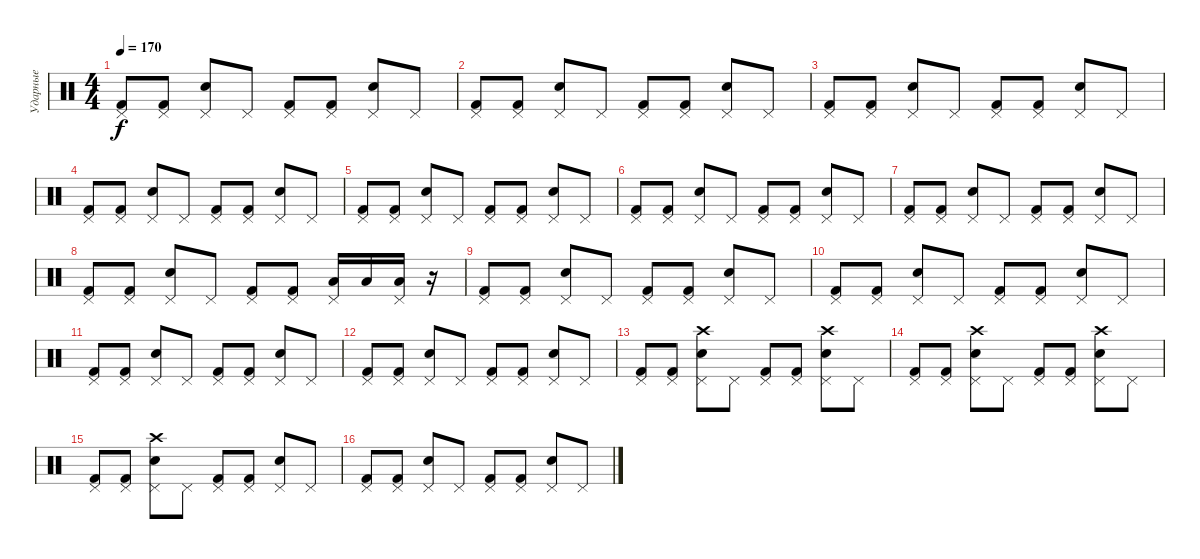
\track ("Ударные" "Ударные") {instrument percussion}
\staff {score}
\articulation defaults
\ts (4 4)
\tempo 170
\clef neutral
\ks c
("Pedal Hi-Hat (hit)" "Kick (hit) 2").8{dy f} ("Pedal Hi-Hat (hit)" "Kick (hit) 2").8 ("Pedal Hi-Hat (hit)" "Electric Snare (hit)").8 "Pedal Hi-Hat (hit)".8 ("Pedal Hi-Hat (hit)" "Kick (hit) 2").8 ("Pedal Hi-Hat (hit)" "Kick (hit) 2").8 ("Pedal Hi-Hat (hit)" "Electric Snare (hit)").8 "Pedal Hi-Hat (hit)".8 |
("Pedal Hi-Hat (hit)" "Kick (hit) 2").8 ("Pedal Hi-Hat (hit)" "Kick (hit) 2").8 ("Pedal Hi-Hat (hit)" "Electric Snare (hit)").8 "Pedal Hi-Hat (hit)".8 ("Pedal Hi-Hat (hit)" "Kick (hit) 2").8 ("Pedal Hi-Hat (hit)" "Kick (hit) 2").8 ("Pedal Hi-Hat (hit)" "Electric Snare (hit)").8 "Pedal Hi-Hat (hit)".8 |
("Kick (hit) 2" "Pedal Hi-Hat (hit)").8 ("Pedal Hi-Hat (hit)" "Kick (hit) 2").8 ("Pedal Hi-Hat (hit)" "Electric Snare (hit)").8 "Pedal Hi-Hat (hit)".8 ("Kick (hit) 2" "Pedal Hi-Hat (hit)").8 ("Pedal Hi-Hat (hit)" "Kick (hit) 2").8 ("Electric Snare (hit)" "Pedal Hi-Hat (hit)").8 "Pedal Hi-Hat (hit)".8 |
("Pedal Hi-Hat (hit)" "Kick (hit) 2").8 ("Kick (hit) 2" "Pedal Hi-Hat (hit)").8 ("Pedal Hi-Hat (hit)" "Electric Snare (hit)").8 "Pedal Hi-Hat (hit)".8 ("Kick (hit) 2" "Pedal Hi-Hat (hit)").8 ("Pedal Hi-Hat (hit)" "Kick (hit) 2").8 ("Pedal Hi-Hat (hit)" "Electric Snare (hit)").8 "Pedal Hi-Hat (hit)".8 |
("Pedal Hi-Hat (hit)" "Kick (hit) 2").8 ("Pedal Hi-Hat (hit)" "Kick (hit) 2").8 ("Pedal Hi-Hat (hit)" "Electric Snare (hit)").8 "Pedal Hi-Hat (hit)".8 ("Pedal Hi-Hat (hit)" "Kick (hit) 2").8 ("Pedal Hi-Hat (hit)" "Kick (hit) 2").8 ("Pedal Hi-Hat (hit)" "Electric Snare (hit)").8 "Pedal Hi-Hat (hit)".8 |
("Pedal Hi-Hat (hit)" "Kick (hit) 2").8 ("Pedal Hi-Hat (hit)" "Kick (hit) 2").8 ("Pedal Hi-Hat (hit)" "Electric Snare (hit)").8 "Pedal Hi-Hat (hit)".8 ("Pedal Hi-Hat (hit)" "Kick (hit) 2").8 ("Pedal Hi-Hat (hit)" "Kick (hit) 2").8 ("Pedal Hi-Hat (hit)" "Electric Snare (hit)").8 "Pedal Hi-Hat (hit)".8 |
("Kick (hit) 2" "Pedal Hi-Hat (hit)").8 ("Pedal Hi-Hat (hit)" "Kick (hit) 2").8 ("Pedal Hi-Hat (hit)" "Electric Snare (hit)").8 "Pedal Hi-Hat (hit)".8 ("Kick (hit) 2" "Pedal Hi-Hat (hit)").8 ("Pedal Hi-Hat (hit)" "Kick (hit) 2").8 ("Electric Snare (hit)" "Pedal Hi-Hat (hit)").8 "Pedal Hi-Hat (hit)".8 |
("Kick (hit) 2" "Pedal Hi-Hat (hit)").8 ("Pedal Hi-Hat (hit)" "Kick (hit) 2").8 ("Pedal Hi-Hat (hit)" "Electric Snare (hit)").8 "Pedal Hi-Hat (hit)".8 ("Kick (hit) 2" "Pedal Hi-Hat (hit)").8 ("Kick (hit) 2" "Pedal Hi-Hat (hit)").8 ("Low Tom (hit)" "Pedal Hi-Hat (hit)").16 "Low Tom (hit)".16 ("Pedal Hi-Hat (hit)" "Low Tom (hit)").16 r.16 |
("Pedal Hi-Hat (hit)" "Kick (hit) 2").8 ("Pedal Hi-Hat (hit)" "Kick (hit) 2").8 ("Pedal Hi-Hat (hit)" "Electric Snare (hit)").8 "Pedal Hi-Hat (hit)".8 ("Pedal Hi-Hat (hit)" "Kick (hit) 2").8 ("Pedal Hi-Hat (hit)" "Kick (hit) 2").8 ("Pedal Hi-Hat (hit)" "Electric Snare (hit)").8 "Pedal Hi-Hat (hit)".8 |
("Pedal Hi-Hat (hit)" "Kick (hit) 2").8 ("Pedal Hi-Hat (hit)" "Kick (hit) 2").8 ("Pedal Hi-Hat (hit)" "Electric Snare (hit)").8 "Pedal Hi-Hat (hit)".8 ("Pedal Hi-Hat (hit)" "Kick (hit) 2").8 ("Pedal Hi-Hat (hit)" "Kick (hit) 2").8 ("Pedal Hi-Hat (hit)" "Electric Snare (hit)").8 "Pedal Hi-Hat (hit)".8 |
("Kick (hit) 2" "Pedal Hi-Hat (hit)").8 ("Pedal Hi-Hat (hit)" "Kick (hit) 2").8 ("Pedal Hi-Hat (hit)" "Electric Snare (hit)").8 "Pedal Hi-Hat (hit)".8 ("Kick (hit) 2" "Pedal Hi-Hat (hit)").8 ("Kick (hit) 2" "Pedal Hi-Hat (hit)").8 ("Pedal Hi-Hat (hit)" "Electric Snare (hit)").8 "Pedal Hi-Hat (hit)".8 |
("Pedal Hi-Hat (hit)" "Kick (hit) 2").8 ("Kick (hit) 2" "Pedal Hi-Hat (hit)").8 ("Pedal Hi-Hat (hit)" "Electric Snare (hit)").8 "Pedal Hi-Hat (hit)".8 ("Pedal Hi-Hat (hit)" "Kick (hit) 2").8 ("Kick (hit) 2" "Pedal Hi-Hat (hit)").8 ("Electric Snare (hit)" "Pedal Hi-Hat (hit)").8 "Pedal Hi-Hat (hit)".8 |
("Pedal Hi-Hat (hit)" "Kick (hit) 2").8 ("Pedal Hi-Hat (hit)" "Kick (hit) 2").8 ("Crash high (hit)" "Electric Snare (hit)" "Pedal Hi-Hat (hit)").8 "Pedal Hi-Hat (hit)".8 ("Pedal Hi-Hat (hit)" "Kick (hit) 2").8 ("Pedal Hi-Hat (hit)" "Kick (hit) 2").8 ("Crash high (hit)" "Pedal Hi-Hat (hit)" "Electric Snare (hit)").8 "Pedal Hi-Hat (hit)".8 |
("Pedal Hi-Hat (hit)" "Kick (hit) 2").8 ("Pedal Hi-Hat (hit)" "Kick (hit) 2").8 ("Crash high (hit)" "Pedal Hi-Hat (hit)" "Electric Snare (hit)").8 "Pedal Hi-Hat (hit)".8 ("Pedal Hi-Hat (hit)" "Kick (hit) 2").8 ("Pedal Hi-Hat (hit)" "Kick (hit) 2").8 ("Crash high (hit)" "Pedal Hi-Hat (hit)" "Electric Snare (hit)").8 "Pedal Hi-Hat (hit)".8 |
("Kick (hit) 2" "Pedal Hi-Hat (hit)").8 ("Pedal Hi-Hat (hit)" "Kick (hit) 2").8 ("Crash high (hit)" "Pedal Hi-Hat (hit)" "Electric Snare (hit)").8 "Pedal Hi-Hat (hit)".8 ("Kick (hit) 2" "Pedal Hi-Hat (hit)").8 ("Pedal Hi-Hat (hit)" "Kick (hit) 2").8 ("Electric Snare (hit)" "Pedal Hi-Hat (hit)").8 "Pedal Hi-Hat (hit)".8 |
("Kick (hit) 2" "Pedal Hi-Hat (hit)").8 ("Kick (hit) 2" "Pedal Hi-Hat (hit)").8 ("Pedal Hi-Hat (hit)" "Electric Snare (hit)").8 "Pedal Hi-Hat (hit)".8 ("Kick (hit) 2" "Pedal Hi-Hat (hit)").8 ("Pedal Hi-Hat (hit)" "Kick (hit) 2").8 ("Pedal Hi-Hat (hit)" "Electric Snare (hit)").8 "Pedal Hi-Hat (hit)".8
